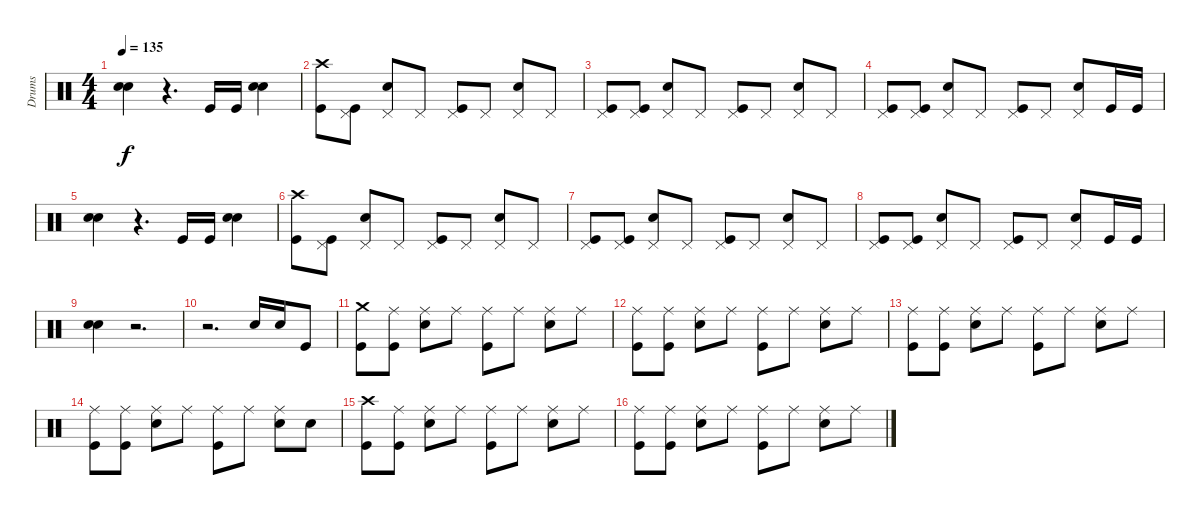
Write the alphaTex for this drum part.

\track ("Drums" "Drums") {instrument percussion}
\staff {score}
\articulation defaults
\ts (4 4)
\tempo 135
\clef neutral
\ks c
("Snare (hit) 2" "Snare (hit) 2").4{dy f} r.4{d} "Kick (hit)".16 "Kick (hit)".16 ("Snare (hit) 2" "Snare (hit) 2").4 |
("Crash high (hit)" "Kick (hit)").8 ("Pedal Hi-Hat (hit)" "Kick (hit)").8 ("Pedal Hi-Hat (hit)" "Snare (hit) 2").8 "Pedal Hi-Hat (hit)".8 ("Pedal Hi-Hat (hit)" "Kick (hit)").8 "Pedal Hi-Hat (hit)".8 ("Pedal Hi-Hat (hit)" "Snare (hit) 2").8 "Pedal Hi-Hat (hit)".8 |
("Pedal Hi-Hat (hit)" "Kick (hit)").8 ("Pedal Hi-Hat (hit)" "Kick (hit)").8 ("Pedal Hi-Hat (hit)" "Snare (hit) 2").8 "Pedal Hi-Hat (hit)".8 ("Pedal Hi-Hat (hit)" "Kick (hit)").8 "Pedal Hi-Hat (hit)".8 ("Pedal Hi-Hat (hit)" "Snare (hit) 2").8 "Pedal Hi-Hat (hit)".8 |
("Pedal Hi-Hat (hit)" "Kick (hit)").8 ("Pedal Hi-Hat (hit)" "Kick (hit)").8 ("Pedal Hi-Hat (hit)" "Snare (hit) 2").8 "Pedal Hi-Hat (hit)".8 ("Pedal Hi-Hat (hit)" "Kick (hit)").8 "Pedal Hi-Hat (hit)".8 ("Pedal Hi-Hat (hit)" "Snare (hit) 2").8 "Kick (hit)".16 "Kick (hit)".16 |
("Snare (hit) 2" "Snare (hit) 2").4 r.4{d} "Kick (hit)".16 "Kick (hit)".16 ("Snare (hit) 2" "Snare (hit) 2").4 |
("Crash high (hit)" "Kick (hit)").8 ("Pedal Hi-Hat (hit)" "Kick (hit)").8 ("Pedal Hi-Hat (hit)" "Snare (hit) 2").8 "Pedal Hi-Hat (hit)".8 ("Pedal Hi-Hat (hit)" "Kick (hit)").8 "Pedal Hi-Hat (hit)".8 ("Pedal Hi-Hat (hit)" "Snare (hit) 2").8 "Pedal Hi-Hat (hit)".8 |
("Pedal Hi-Hat (hit)" "Kick (hit)").8 ("Pedal Hi-Hat (hit)" "Kick (hit)").8 ("Pedal Hi-Hat (hit)" "Snare (hit) 2").8 "Pedal Hi-Hat (hit)".8 ("Pedal Hi-Hat (hit)" "Kick (hit)").8 "Pedal Hi-Hat (hit)".8 ("Pedal Hi-Hat (hit)" "Snare (hit) 2").8 "Pedal Hi-Hat (hit)".8 |
("Pedal Hi-Hat (hit)" "Kick (hit)").8 ("Pedal Hi-Hat (hit)" "Kick (hit)").8 ("Pedal Hi-Hat (hit)" "Snare (hit) 2").8 "Pedal Hi-Hat (hit)".8 ("Pedal Hi-Hat (hit)" "Kick (hit)").8 "Pedal Hi-Hat (hit)".8 ("Pedal Hi-Hat (hit)" "Snare (hit) 2").8 "Kick (hit)".16 "Kick (hit)".16 |
("Snare (hit) 2" "Snare (hit) 2").4 r.2{d} |
r.2{d} "Snare (hit) 2".16 "Snare (hit) 2".16 "Kick (hit)".8 |
("Crash medium (hit)" "Kick (hit)").8 ("Ride (middle)" "Kick (hit)").8 ("Ride (middle)" "Snare (hit) 2").8 "Ride (middle)".8 ("Ride (middle)" "Kick (hit)").8 "Ride (middle)".8 ("Ride (middle)" "Snare (hit) 2").8 "Ride (middle)".8 |
("Ride (middle)" "Kick (hit)").8 ("Ride (middle)" "Kick (hit)").8 ("Ride (middle)" "Snare (hit) 2").8 "Ride (middle)".8 ("Ride (middle)" "Kick (hit)").8 "Ride (middle)".8 ("Ride (middle)" "Snare (hit) 2").8 "Ride (middle)".8 |
("Ride (middle)" "Kick (hit)").8 ("Ride (middle)" "Kick (hit)").8 ("Ride (middle)" "Snare (hit) 2").8 "Ride (middle)".8 ("Ride (middle)" "Kick (hit)").8 "Ride (middle)".8 ("Ride (middle)" "Snare (hit) 2").8 "Ride (middle)".8 |
("Ride (middle)" "Kick (hit)").8 ("Ride (middle)" "Kick (hit)").8 ("Ride (middle)" "Snare (hit) 2").8 "Ride (middle)".8 ("Ride (middle)" "Kick (hit)").8 "Ride (middle)".8 ("Ride (middle)" "Snare (hit) 2").8 "Snare (hit) 2".8 |
("Crash high (hit)" "Kick (hit)").8 ("Ride (middle)" "Kick (hit)").8 ("Ride (middle)" "Snare (hit) 2").8 "Ride (middle)".8 ("Ride (middle)" "Kick (hit)").8 "Ride (middle)".8 ("Ride (middle)" "Snare (hit) 2").8 "Ride (middle)".8 |
("Ride (middle)" "Kick (hit)").8 ("Ride (middle)" "Kick (hit)").8 ("Ride (middle)" "Snare (hit) 2").8 "Ride (middle)".8 ("Ride (middle)" "Kick (hit)").8 "Ride (middle)".8 ("Ride (middle)" "Snare (hit) 2").8 "Ride (middle)".8
